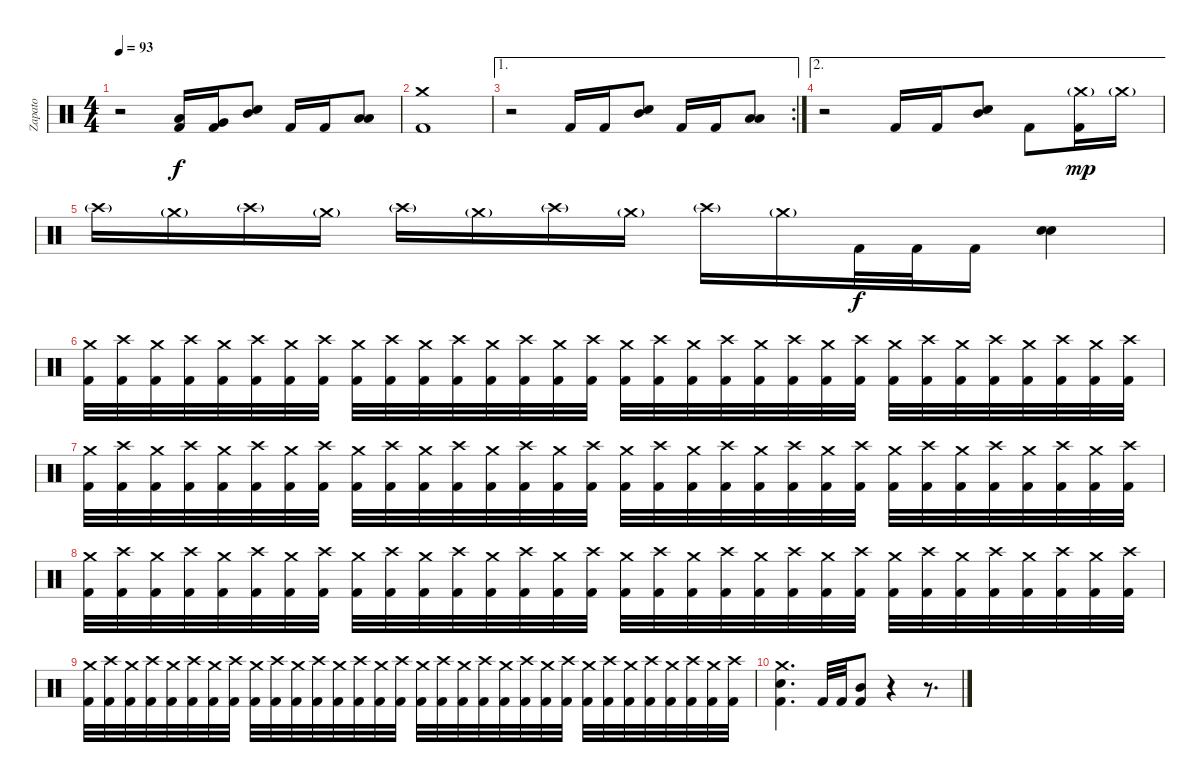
\track ("Zapato" "Zapato") {instrument percussion}
\staff {score}
\articulation defaults
\ts (4 4)
\tempo 93
\clef neutral
\ks c
r.2{dy f} ("Low Floor Tom (hit)" "Kick (hit) 2").16 ("Very Low Tom (hit)" "Kick (hit) 2").16 ("Mid Tom (hit)" "Electric Snare (hit)").8 "Kick (hit) 2".16 "Kick (hit) 2".16 ("Low Tom (hit)" "Low Floor Tom (hit)").8 |
("Kick (hit) 2" "Crash medium (hit)").1 |
\ae 1
\rc 2
r.2 "Kick (hit) 2".16 "Kick (hit) 2".16 ("Mid Tom (hit)" "Electric Snare (hit)").8 "Kick (hit) 2".16 "Kick (hit) 2".16 ("Low Tom (hit)" "Low Floor Tom (hit)").8 |
\ae 2
r.2 "Kick (hit) 2".16 "Kick (hit) 2".16 ("Mid Tom (hit)" "Electric Snare (hit)").8 "Kick (hit) 2".8 ("Crash medium (hit)"{g} "Kick (hit) 2").16{dy mp} "Crash medium (hit)"{g}.16 |
"Crash high (hit)"{g}.16 "Crash medium (hit)"{g}.16 "Crash high (hit)"{g}.16 "Crash medium (hit)"{g}.16 "Crash high (hit)"{g}.16 "Crash medium (hit)"{g}.16 "Crash high (hit)"{g}.16 "Crash medium (hit)"{g}.16 "Crash high (hit)"{g}.16 "Crash medium (hit)"{g}.16 "Kick (hit) 2".32{dy f} "Kick (hit) 2".32 "Kick (hit) 2".16 ("Electric Snare (hit)" "Electric Snare (hit)").4 |
("Kick (hit) 2" "Crash medium (hit)").32 ("Kick (hit) 2" "Crash high (hit)").32 ("Kick (hit) 2" "Crash medium (hit)").32 ("Kick (hit) 2" "Crash high (hit)").32 ("Kick (hit) 2" "Crash medium (hit)").32 ("Kick (hit) 2" "Crash high (hit)").32 ("Kick (hit) 2" "Crash medium (hit)").32 ("Kick (hit) 2" "Crash high (hit)").32 ("Kick (hit) 2" "Crash medium (hit)").32 ("Kick (hit) 2" "Crash high (hit)").32 ("Kick (hit) 2" "Crash medium (hit)").32 ("Kick (hit) 2" "Crash high (hit)").32 ("Kick (hit) 2" "Crash medium (hit)").32 ("Kick (hit) 2" "Crash high (hit)").32 ("Kick (hit) 2" "Crash medium (hit)").32 ("Kick (hit) 2" "Crash high (hit)").32 ("Kick (hit) 2" "Crash medium (hit)").32 ("Kick (hit) 2" "Crash high (hit)").32 ("Kick (hit) 2" "Crash medium (hit)").32 ("Kick (hit) 2" "Crash high (hit)").32 ("Kick (hit) 2" "Crash medium (hit)").32 ("Kick (hit) 2" "Crash high (hit)").32 ("Kick (hit) 2" "Crash medium (hit)").32 ("Kick (hit) 2" "Crash high (hit)").32 ("Kick (hit) 2" "Crash medium (hit)").32 ("Kick (hit) 2" "Crash high (hit)").32 ("Kick (hit) 2" "Crash medium (hit)").32 ("Kick (hit) 2" "Crash high (hit)").32 ("Kick (hit) 2" "Crash medium (hit)").32 ("Kick (hit) 2" "Crash high (hit)").32 ("Kick (hit) 2" "Crash medium (hit)").32 ("Kick (hit) 2" "Crash high (hit)").32 |
("Kick (hit) 2" "Crash medium (hit)").32 ("Kick (hit) 2" "Crash high (hit)").32 ("Kick (hit) 2" "Crash medium (hit)").32 ("Kick (hit) 2" "Crash high (hit)").32 ("Kick (hit) 2" "Crash medium (hit)").32 ("Kick (hit) 2" "Crash high (hit)").32 ("Kick (hit) 2" "Crash medium (hit)").32 ("Kick (hit) 2" "Crash high (hit)").32 ("Kick (hit) 2" "Crash medium (hit)").32 ("Kick (hit) 2" "Crash high (hit)").32 ("Kick (hit) 2" "Crash medium (hit)").32 ("Kick (hit) 2" "Crash high (hit)").32 ("Kick (hit) 2" "Crash medium (hit)").32 ("Kick (hit) 2" "Crash high (hit)").32 ("Kick (hit) 2" "Crash medium (hit)").32 ("Kick (hit) 2" "Crash high (hit)").32 ("Kick (hit) 2" "Crash medium (hit)").32 ("Kick (hit) 2" "Crash high (hit)").32 ("Kick (hit) 2" "Crash medium (hit)").32 ("Kick (hit) 2" "Crash high (hit)").32 ("Kick (hit) 2" "Crash medium (hit)").32 ("Kick (hit) 2" "Crash high (hit)").32 ("Kick (hit) 2" "Crash medium (hit)").32 ("Kick (hit) 2" "Crash high (hit)").32 ("Kick (hit) 2" "Crash medium (hit)").32 ("Kick (hit) 2" "Crash high (hit)").32 ("Kick (hit) 2" "Crash medium (hit)").32 ("Kick (hit) 2" "Crash high (hit)").32 ("Kick (hit) 2" "Crash medium (hit)").32 ("Kick (hit) 2" "Crash high (hit)").32 ("Kick (hit) 2" "Crash medium (hit)").32 ("Kick (hit) 2" "Crash high (hit)").32 |
("Kick (hit) 2" "Crash medium (hit)").32 ("Kick (hit) 2" "Crash high (hit)").32 ("Kick (hit) 2" "Crash medium (hit)").32 ("Kick (hit) 2" "Crash high (hit)").32 ("Kick (hit) 2" "Crash medium (hit)").32 ("Kick (hit) 2" "Crash high (hit)").32 ("Kick (hit) 2" "Crash medium (hit)").32 ("Kick (hit) 2" "Crash high (hit)").32 ("Kick (hit) 2" "Crash medium (hit)").32 ("Kick (hit) 2" "Crash high (hit)").32 ("Kick (hit) 2" "Crash medium (hit)").32 ("Kick (hit) 2" "Crash high (hit)").32 ("Kick (hit) 2" "Crash medium (hit)").32 ("Kick (hit) 2" "Crash high (hit)").32 ("Kick (hit) 2" "Crash medium (hit)").32 ("Kick (hit) 2" "Crash high (hit)").32 ("Kick (hit) 2" "Crash medium (hit)").32 ("Kick (hit) 2" "Crash high (hit)").32 ("Kick (hit) 2" "Crash medium (hit)").32 ("Kick (hit) 2" "Crash high (hit)").32 ("Kick (hit) 2" "Crash medium (hit)").32 ("Kick (hit) 2" "Crash high (hit)").32 ("Kick (hit) 2" "Crash medium (hit)").32 ("Kick (hit) 2" "Crash high (hit)").32 ("Kick (hit) 2" "Crash medium (hit)").32 ("Kick (hit) 2" "Crash high (hit)").32 ("Kick (hit) 2" "Crash medium (hit)").32 ("Kick (hit) 2" "Crash high (hit)").32 ("Kick (hit) 2" "Crash medium (hit)").32 ("Kick (hit) 2" "Crash high (hit)").32 ("Kick (hit) 2" "Crash medium (hit)").32 ("Kick (hit) 2" "Crash high (hit)").32 |
("Kick (hit) 2" "Crash medium (hit)").32 ("Kick (hit) 2" "Crash high (hit)").32 ("Kick (hit) 2" "Crash medium (hit)").32 ("Kick (hit) 2" "Crash high (hit)").32 ("Kick (hit) 2" "Crash medium (hit)").32 ("Kick (hit) 2" "Crash high (hit)").32 ("Kick (hit) 2" "Crash medium (hit)").32 ("Kick (hit) 2" "Crash high (hit)").32 ("Kick (hit) 2" "Crash medium (hit)").32 ("Kick (hit) 2" "Crash high (hit)").32 ("Kick (hit) 2" "Crash medium (hit)").32 ("Kick (hit) 2" "Crash high (hit)").32 ("Kick (hit) 2" "Crash medium (hit)").32 ("Kick (hit) 2" "Crash high (hit)").32 ("Kick (hit) 2" "Crash medium (hit)").32 ("Kick (hit) 2" "Crash high (hit)").32 ("Kick (hit) 2" "Crash medium (hit)").32 ("Kick (hit) 2" "Crash high (hit)").32 ("Kick (hit) 2" "Crash medium (hit)").32 ("Kick (hit) 2" "Crash high (hit)").32 ("Kick (hit) 2" "Crash medium (hit)").32 ("Kick (hit) 2" "Crash high (hit)").32 ("Kick (hit) 2" "Crash medium (hit)").32 ("Kick (hit) 2" "Crash high (hit)").32 ("Kick (hit) 2" "Crash medium (hit)").32 ("Kick (hit) 2" "Crash high (hit)").32 ("Kick (hit) 2" "Crash medium (hit)").32 ("Kick (hit) 2" "Crash high (hit)").32 ("Kick (hit) 2" "Crash medium (hit)").32 ("Kick (hit) 2" "Crash high (hit)").32 ("Kick (hit) 2" "Crash medium (hit)").32 ("Kick (hit) 2" "Crash high (hit)").32 |
("Electric Snare (hit)" "Kick (hit) 2" "Crash medium (hit)").4{d} "Kick (hit) 2".32 "Kick (hit) 2".32 ("Kick (hit) 2" "Mid Tom (hit)").8 r.4 r.8{d}
